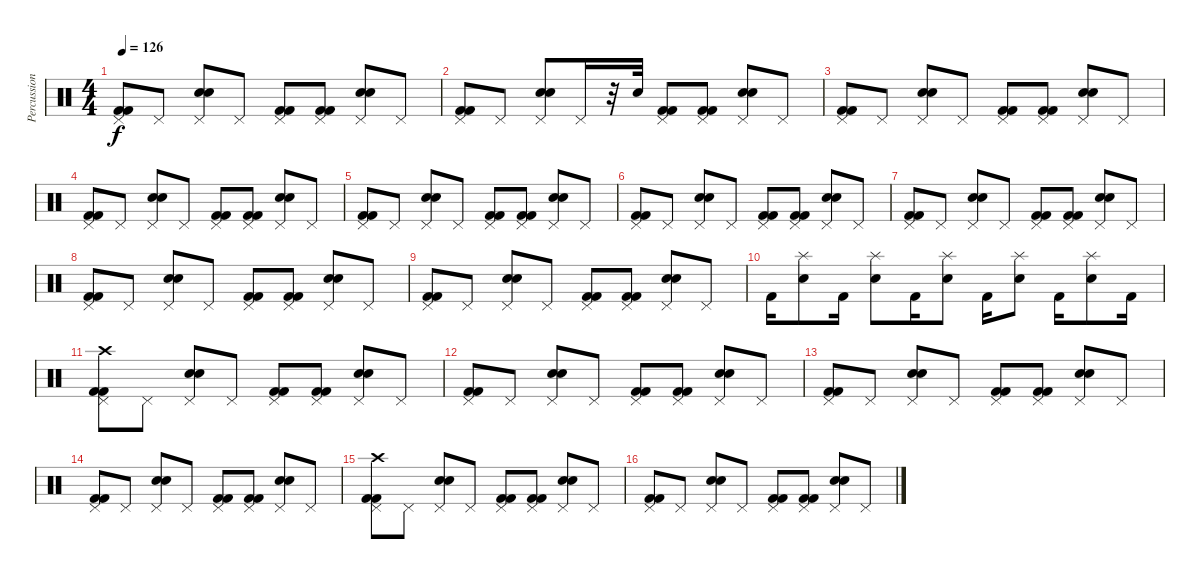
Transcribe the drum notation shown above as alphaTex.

\track ("Percussion" "Percussion") {instrument percussion}
\staff {score}
\articulation defaults
\ts (4 4)
\tempo 126
\clef neutral
\ks c
("Pedal Hi-Hat (hit)" "Kick (hit) 2" "Kick (hit) 2").8{dy f} "Pedal Hi-Hat (hit)".8 ("Pedal Hi-Hat (hit)" "Electric Snare (hit)" "Snare (hit) 2").8 "Pedal Hi-Hat (hit)".8 ("Pedal Hi-Hat (hit)" "Kick (hit) 2" "Kick (hit) 2").8 ("Pedal Hi-Hat (hit)" "Kick (hit) 2" "Kick (hit) 2").8 ("Pedal Hi-Hat (hit)" "Electric Snare (hit)" "Snare (hit) 2").8 "Pedal Hi-Hat (hit)".8 |
("Pedal Hi-Hat (hit)" "Kick (hit) 2" "Kick (hit) 2").8 "Pedal Hi-Hat (hit)".8 ("Pedal Hi-Hat (hit)" "Electric Snare (hit)" "Snare (hit) 2").8 "Pedal Hi-Hat (hit)".16 r.32 "Electric Snare (hit)".32 ("Pedal Hi-Hat (hit)" "Kick (hit) 2" "Kick (hit) 2").8 ("Pedal Hi-Hat (hit)" "Kick (hit) 2" "Kick (hit) 2").8 ("Pedal Hi-Hat (hit)" "Electric Snare (hit)" "Snare (hit) 2").8 "Pedal Hi-Hat (hit)".8 |
("Pedal Hi-Hat (hit)" "Kick (hit) 2" "Kick (hit) 2").8 "Pedal Hi-Hat (hit)".8 ("Pedal Hi-Hat (hit)" "Electric Snare (hit)" "Snare (hit) 2").8 "Pedal Hi-Hat (hit)".8 ("Pedal Hi-Hat (hit)" "Kick (hit) 2" "Kick (hit) 2").8 ("Pedal Hi-Hat (hit)" "Kick (hit) 2" "Kick (hit) 2").8 ("Pedal Hi-Hat (hit)" "Electric Snare (hit)" "Snare (hit) 2").8 "Pedal Hi-Hat (hit)".8 |
("Pedal Hi-Hat (hit)" "Kick (hit) 2" "Kick (hit) 2").8 "Pedal Hi-Hat (hit)".8 ("Pedal Hi-Hat (hit)" "Electric Snare (hit)" "Snare (hit) 2").8 "Pedal Hi-Hat (hit)".8 ("Pedal Hi-Hat (hit)" "Kick (hit) 2" "Kick (hit) 2").8 ("Pedal Hi-Hat (hit)" "Kick (hit) 2" "Kick (hit) 2").8 ("Pedal Hi-Hat (hit)" "Electric Snare (hit)" "Snare (hit) 2").8 "Pedal Hi-Hat (hit)".8 |
("Pedal Hi-Hat (hit)" "Kick (hit) 2" "Kick (hit) 2").8 "Pedal Hi-Hat (hit)".8 ("Pedal Hi-Hat (hit)" "Electric Snare (hit)" "Snare (hit) 2").8 "Pedal Hi-Hat (hit)".8 ("Pedal Hi-Hat (hit)" "Kick (hit) 2" "Kick (hit) 2").8 ("Pedal Hi-Hat (hit)" "Kick (hit) 2" "Kick (hit) 2").8 ("Pedal Hi-Hat (hit)" "Electric Snare (hit)" "Snare (hit) 2").8 "Pedal Hi-Hat (hit)".8 |
("Pedal Hi-Hat (hit)" "Kick (hit) 2" "Kick (hit) 2").8 "Pedal Hi-Hat (hit)".8 ("Pedal Hi-Hat (hit)" "Electric Snare (hit)" "Snare (hit) 2").8 "Pedal Hi-Hat (hit)".8 ("Pedal Hi-Hat (hit)" "Kick (hit) 2" "Kick (hit) 2").8 ("Pedal Hi-Hat (hit)" "Kick (hit) 2" "Kick (hit) 2").8 ("Pedal Hi-Hat (hit)" "Electric Snare (hit)" "Snare (hit) 2").8 "Pedal Hi-Hat (hit)".8 |
("Pedal Hi-Hat (hit)" "Kick (hit) 2" "Kick (hit) 2").8 "Pedal Hi-Hat (hit)".8 ("Pedal Hi-Hat (hit)" "Electric Snare (hit)" "Snare (hit) 2").8 "Pedal Hi-Hat (hit)".8 ("Pedal Hi-Hat (hit)" "Kick (hit) 2" "Kick (hit) 2").8 ("Pedal Hi-Hat (hit)" "Kick (hit) 2" "Kick (hit) 2").8 ("Pedal Hi-Hat (hit)" "Electric Snare (hit)" "Snare (hit) 2").8 "Pedal Hi-Hat (hit)".8 |
("Pedal Hi-Hat (hit)" "Kick (hit) 2" "Kick (hit) 2").8 "Pedal Hi-Hat (hit)".8 ("Pedal Hi-Hat (hit)" "Electric Snare (hit)" "Snare (hit) 2").8 "Pedal Hi-Hat (hit)".8 ("Pedal Hi-Hat (hit)" "Kick (hit) 2" "Kick (hit) 2").8 ("Pedal Hi-Hat (hit)" "Kick (hit) 2" "Kick (hit) 2").8 ("Pedal Hi-Hat (hit)" "Electric Snare (hit)" "Snare (hit) 2").8 "Pedal Hi-Hat (hit)".8 |
("Pedal Hi-Hat (hit)" "Kick (hit) 2" "Kick (hit) 2").8 "Pedal Hi-Hat (hit)".8 ("Pedal Hi-Hat (hit)" "Electric Snare (hit)" "Snare (hit) 2").8 "Pedal Hi-Hat (hit)".8 ("Pedal Hi-Hat (hit)" "Kick (hit) 2" "Kick (hit) 2").8 ("Pedal Hi-Hat (hit)" "Kick (hit) 2" "Kick (hit) 2").8 ("Pedal Hi-Hat (hit)" "Electric Snare (hit)" "Snare (hit) 2").8 "Pedal Hi-Hat (hit)".8 |
"Kick (hit) 2".16 ("Splash (hit)" "Electric Snare (hit)").8 "Kick (hit) 2".16 ("Splash (hit)" "Electric Snare (hit)").8 "Kick (hit) 2".16 ("Splash (hit)" "Electric Snare (hit)").8 "Kick (hit) 2".16 ("Splash (hit)" "Electric Snare (hit)").8 "Kick (hit) 2".16 ("Splash (hit)" "Electric Snare (hit)").8 "Kick (hit) 2".16 |
("Pedal Hi-Hat (hit)" "Crash high (hit)" "Kick (hit) 2" "Kick (hit) 2").8 "Pedal Hi-Hat (hit)".8 ("Pedal Hi-Hat (hit)" "Electric Snare (hit)" "Snare (hit) 2").8 "Pedal Hi-Hat (hit)".8 ("Pedal Hi-Hat (hit)" "Kick (hit) 2" "Kick (hit) 2").8 ("Pedal Hi-Hat (hit)" "Kick (hit) 2" "Kick (hit) 2").8 ("Pedal Hi-Hat (hit)" "Electric Snare (hit)" "Snare (hit) 2").8 "Pedal Hi-Hat (hit)".8 |
("Pedal Hi-Hat (hit)" "Kick (hit) 2" "Kick (hit) 2").8 "Pedal Hi-Hat (hit)".8 ("Pedal Hi-Hat (hit)" "Electric Snare (hit)" "Snare (hit) 2").8 "Pedal Hi-Hat (hit)".8 ("Pedal Hi-Hat (hit)" "Kick (hit) 2" "Kick (hit) 2").8 ("Pedal Hi-Hat (hit)" "Kick (hit) 2" "Kick (hit) 2").8 ("Pedal Hi-Hat (hit)" "Electric Snare (hit)" "Snare (hit) 2").8 "Pedal Hi-Hat (hit)".8 |
("Pedal Hi-Hat (hit)" "Kick (hit) 2" "Kick (hit) 2").8 "Pedal Hi-Hat (hit)".8 ("Pedal Hi-Hat (hit)" "Electric Snare (hit)" "Snare (hit) 2").8 "Pedal Hi-Hat (hit)".8 ("Pedal Hi-Hat (hit)" "Kick (hit) 2" "Kick (hit) 2").8 ("Pedal Hi-Hat (hit)" "Kick (hit) 2" "Kick (hit) 2").8 ("Pedal Hi-Hat (hit)" "Electric Snare (hit)" "Snare (hit) 2").8 "Pedal Hi-Hat (hit)".8 |
("Pedal Hi-Hat (hit)" "Kick (hit) 2" "Kick (hit) 2").8 "Pedal Hi-Hat (hit)".8 ("Pedal Hi-Hat (hit)" "Electric Snare (hit)" "Snare (hit) 2").8 "Pedal Hi-Hat (hit)".8 ("Pedal Hi-Hat (hit)" "Kick (hit) 2" "Kick (hit) 2").8 ("Pedal Hi-Hat (hit)" "Kick (hit) 2" "Kick (hit) 2").8 ("Pedal Hi-Hat (hit)" "Electric Snare (hit)" "Snare (hit) 2").8 "Pedal Hi-Hat (hit)".8 |
("Pedal Hi-Hat (hit)" "Crash high (hit)" "Kick (hit) 2" "Kick (hit) 2").8 "Pedal Hi-Hat (hit)".8 ("Pedal Hi-Hat (hit)" "Electric Snare (hit)" "Snare (hit) 2").8 "Pedal Hi-Hat (hit)".8 ("Pedal Hi-Hat (hit)" "Kick (hit) 2" "Kick (hit) 2").8 ("Pedal Hi-Hat (hit)" "Kick (hit) 2" "Kick (hit) 2").8 ("Pedal Hi-Hat (hit)" "Electric Snare (hit)" "Snare (hit) 2").8 "Pedal Hi-Hat (hit)".8 |
("Pedal Hi-Hat (hit)" "Kick (hit) 2" "Kick (hit) 2").8 "Pedal Hi-Hat (hit)".8 ("Pedal Hi-Hat (hit)" "Electric Snare (hit)" "Snare (hit) 2").8 "Pedal Hi-Hat (hit)".8 ("Pedal Hi-Hat (hit)" "Kick (hit) 2" "Kick (hit) 2").8 ("Pedal Hi-Hat (hit)" "Kick (hit) 2" "Kick (hit) 2").8 ("Pedal Hi-Hat (hit)" "Electric Snare (hit)" "Snare (hit) 2").8 "Pedal Hi-Hat (hit)".8
